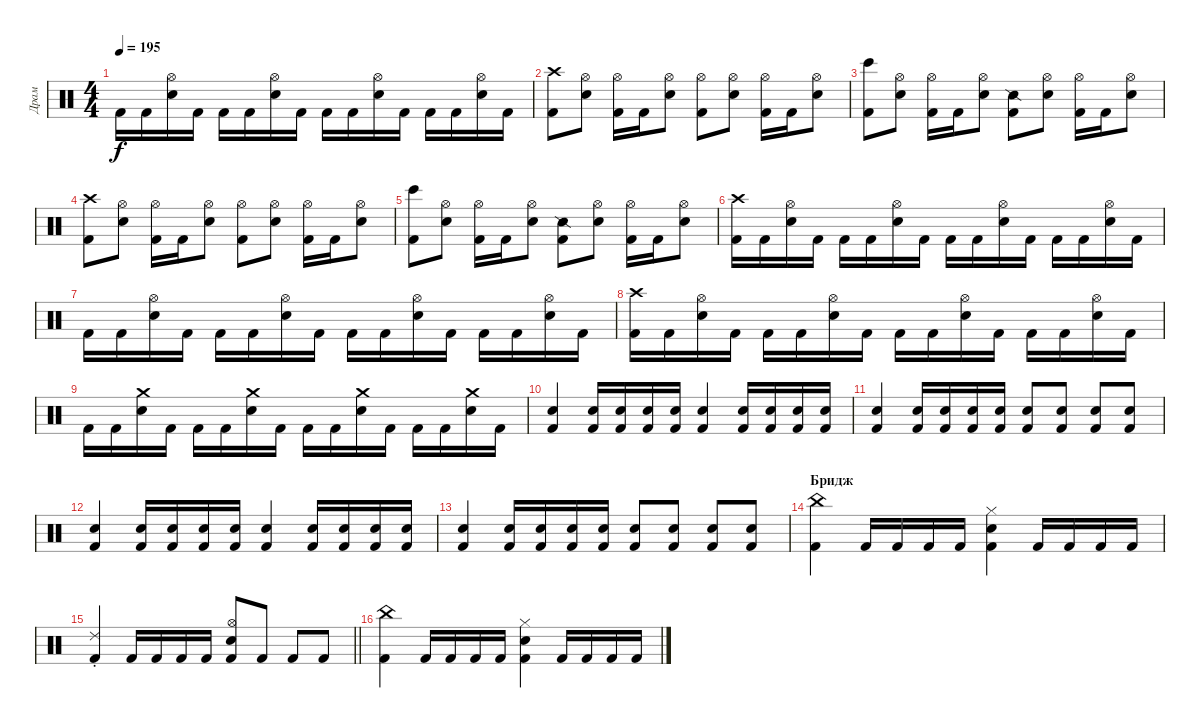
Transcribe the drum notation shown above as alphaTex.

\track ("Драм" "Драм") {instrument percussion}
\staff {score}
\articulation defaults
\ts (4 4)
\tempo 195
\clef neutral
\ks c "Kick (hit) 2".16{dy f} "Kick (hit) 2".16
("Hi-Hat (open)" "Snare (hit) 2").16 "Kick (hit) 2".16 "Kick (hit) 2".16 "Kick (hit) 2".16 ("Hi-Hat (open)" "Snare (hit) 2").16 "Kick (hit) 2".16 "Kick (hit) 2".16 "Kick (hit) 2".16 ("Hi-Hat (open)" "Snare (hit) 2").16 "Kick (hit) 2".16 "Kick (hit) 2".16 "Kick (hit) 2".16 ("Hi-Hat (open)" "Snare (hit) 2").16 "Kick (hit) 2".16 |
("Kick (hit) 2" "Crash high (hit)").8 ("Hi-Hat (open)" "Snare (hit) 2").8 ("Hi-Hat (open)" "Kick (hit) 2").16 "Kick (hit) 2".16 ("Hi-Hat (open)" "Snare (hit) 2").8 ("Hi-Hat (open)" "Kick (hit) 2").8 ("Hi-Hat (open)" "Snare (hit) 2").8 ("Hi-Hat (open)" "Kick (hit) 2").16 "Kick (hit) 2".16 ("Hi-Hat (open)" "Snare (hit) 2").8 |
("Kick (hit) 2" "Bongo High (hit)").8 ("Hi-Hat (open)" "Snare (hit) 2").8 ("Hi-Hat (open)" "Kick (hit) 2").16 "Kick (hit) 2".16 ("Hi-Hat (open)" "Snare (hit) 2").8 ("Kick (hit) 2" "Snare (side stick) 2").8 ("Hi-Hat (open)" "Snare (hit) 2").8 ("Hi-Hat (open)" "Kick (hit) 2").16 "Kick (hit) 2".16 ("Hi-Hat (open)" "Snare (hit) 2").8 |
("Kick (hit) 2" "Crash high (hit)").8 ("Hi-Hat (open)" "Snare (hit) 2").8 ("Hi-Hat (open)" "Kick (hit) 2").16 "Kick (hit) 2".16 ("Hi-Hat (open)" "Snare (hit) 2").8 ("Hi-Hat (open)" "Kick (hit) 2").8 ("Hi-Hat (open)" "Snare (hit) 2").8 ("Hi-Hat (open)" "Kick (hit) 2").16 "Kick (hit) 2".16 ("Hi-Hat (open)" "Snare (hit) 2").8 |
("Kick (hit) 2" "Bongo High (hit)").8 ("Hi-Hat (open)" "Snare (hit) 2").8 ("Hi-Hat (open)" "Kick (hit) 2").16 "Kick (hit) 2".16 ("Hi-Hat (open)" "Snare (hit) 2").8 ("Kick (hit) 2" "Snare (side stick) 2").8 ("Hi-Hat (open)" "Snare (hit) 2").8 ("Hi-Hat (open)" "Kick (hit) 2").16 "Kick (hit) 2".16 ("Hi-Hat (open)" "Snare (hit) 2").8 |
("Kick (hit) 2" "Crash high (hit)").16 "Kick (hit) 2".16 ("Hi-Hat (open)" "Snare (hit) 2").16 "Kick (hit) 2".16 "Kick (hit) 2".16 "Kick (hit) 2".16 ("Hi-Hat (open)" "Snare (hit) 2").16 "Kick (hit) 2".16 "Kick (hit) 2".16 "Kick (hit) 2".16 ("Hi-Hat (open)" "Snare (hit) 2").16 "Kick (hit) 2".16 "Kick (hit) 2".16 "Kick (hit) 2".16 ("Hi-Hat (open)" "Snare (hit) 2").16 "Kick (hit) 2".16 |
"Kick (hit) 2".16 "Kick (hit) 2".16 ("Hi-Hat (open)" "Snare (hit) 2").16 "Kick (hit) 2".16 "Kick (hit) 2".16 "Kick (hit) 2".16 ("Hi-Hat (open)" "Snare (hit) 2").16 "Kick (hit) 2".16 "Kick (hit) 2".16 "Kick (hit) 2".16 ("Hi-Hat (open)" "Snare (hit) 2").16 "Kick (hit) 2".16 "Kick (hit) 2".16 "Kick (hit) 2".16 ("Hi-Hat (open)" "Snare (hit) 2").16 "Kick (hit) 2".16 |
("Kick (hit) 2" "Crash high (hit)").16 "Kick (hit) 2".16 ("Hi-Hat (open)" "Snare (hit) 2").16 "Kick (hit) 2".16 "Kick (hit) 2".16 "Kick (hit) 2".16 ("Hi-Hat (open)" "Snare (hit) 2").16 "Kick (hit) 2".16 "Kick (hit) 2".16 "Kick (hit) 2".16 ("Hi-Hat (open)" "Snare (hit) 2").16 "Kick (hit) 2".16 "Kick (hit) 2".16 "Kick (hit) 2".16 ("Hi-Hat (open)" "Snare (hit) 2").16 "Kick (hit) 2".16 |
"Kick (hit) 2".16 "Kick (hit) 2".16 ("Snare (hit) 2" "Crash medium (hit)").16 "Kick (hit) 2".16 "Kick (hit) 2".16 "Kick (hit) 2".16 ("Snare (hit) 2" "Crash medium (hit)").16 "Kick (hit) 2".16 "Kick (hit) 2".16 "Kick (hit) 2".16 ("Snare (hit) 2" "Crash medium (hit)").16 "Kick (hit) 2".16 "Kick (hit) 2".16 "Kick (hit) 2".16 ("Snare (hit) 2" "Crash medium (hit)").16 "Kick (hit) 2".16 |
("Snare (hit) 2" "Kick (hit) 2").4 ("Snare (hit) 2" "Kick (hit) 2").16 ("Snare (hit) 2" "Kick (hit) 2").16 ("Snare (hit) 2" "Kick (hit) 2").16 ("Snare (hit) 2" "Kick (hit) 2").16 ("Snare (hit) 2" "Kick (hit) 2").4 ("Snare (hit) 2" "Kick (hit) 2").16 ("Snare (hit) 2" "Kick (hit) 2").16 ("Snare (hit) 2" "Kick (hit) 2").16 ("Snare (hit) 2" "Kick (hit) 2").16 |
("Snare (hit) 2" "Kick (hit) 2").4 ("Snare (hit) 2" "Kick (hit) 2").16 ("Snare (hit) 2" "Kick (hit) 2").16 ("Snare (hit) 2" "Kick (hit) 2").16 ("Snare (hit) 2" "Kick (hit) 2").16 ("Snare (hit) 2" "Kick (hit) 2").8 ("Snare (hit) 2" "Kick (hit) 2").8 ("Snare (hit) 2" "Kick (hit) 2").8 ("Snare (hit) 2" "Kick (hit) 2").8 |
("Snare (hit) 2" "Kick (hit) 2").4 ("Snare (hit) 2" "Kick (hit) 2").16 ("Snare (hit) 2" "Kick (hit) 2").16 ("Snare (hit) 2" "Kick (hit) 2").16 ("Snare (hit) 2" "Kick (hit) 2").16 ("Snare (hit) 2" "Kick (hit) 2").4 ("Snare (hit) 2" "Kick (hit) 2").16 ("Snare (hit) 2" "Kick (hit) 2").16 ("Snare (hit) 2" "Kick (hit) 2").16 ("Snare (hit) 2" "Kick (hit) 2").16 |
("Snare (hit) 2" "Kick (hit) 2").4 ("Snare (hit) 2" "Kick (hit) 2").16 ("Snare (hit) 2" "Kick (hit) 2").16 ("Snare (hit) 2" "Kick (hit) 2").16 ("Snare (hit) 2" "Kick (hit) 2").16 ("Snare (hit) 2" "Kick (hit) 2").8 ("Snare (hit) 2" "Kick (hit) 2").8 ("Snare (hit) 2" "Kick (hit) 2").8 ("Snare (hit) 2" "Kick (hit) 2").8 |
\section ("" "Бридж")
("Kick (hit) 2" "China (hit)").4 "Kick (hit) 2".16 "Kick (hit) 2".16 "Kick (hit) 2".16 "Kick (hit) 2".16 ("Snare (hit) 2" "Kick (hit) 2" "Hi-Hat (closed)").4 "Kick (hit) 2".16 "Kick (hit) 2".16 "Kick (hit) 2".16 "Kick (hit) 2".16 |
\barLineRight lightlight
("Kick (hit) 2" "Ride (choke) 2").4 "Kick (hit) 2".16 "Kick (hit) 2".16 "Kick (hit) 2".16 "Kick (hit) 2".16 ("Hi-Hat (open)" "Snare (hit) 2" "Kick (hit) 2").8 "Kick (hit) 2".8 "Kick (hit) 2".8 "Kick (hit) 2".8 |
("Kick (hit) 2" "China (hit)").4 "Kick (hit) 2".16 "Kick (hit) 2".16 "Kick (hit) 2".16 "Kick (hit) 2".16 ("Snare (hit) 2" "Kick (hit) 2" "Hi-Hat (closed)").4 "Kick (hit) 2".16 "Kick (hit) 2".16 "Kick (hit) 2".16 "Kick (hit) 2".16
